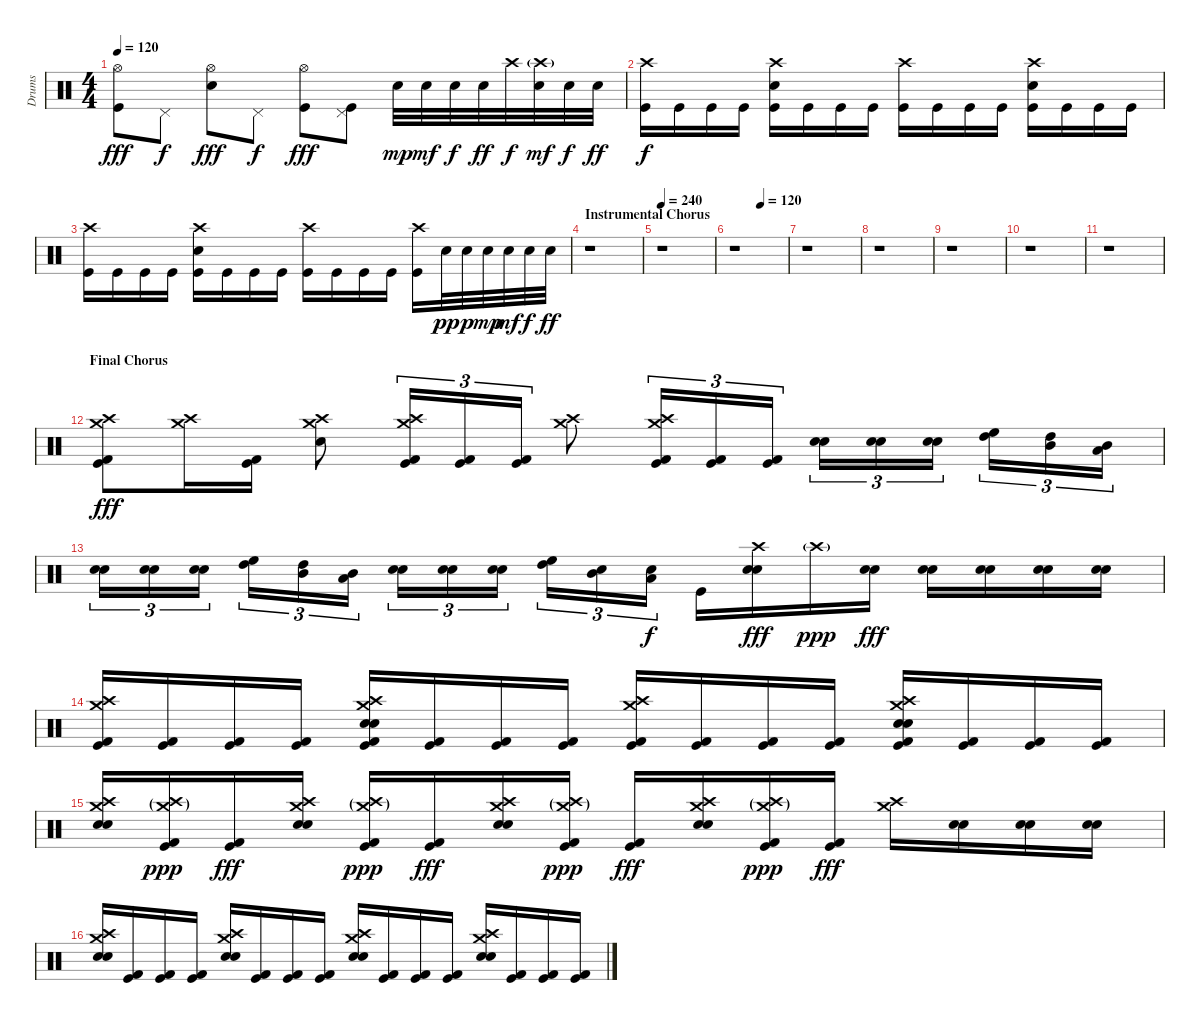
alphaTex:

\track ("Drums" "Drums") {instrument percussion}
\staff {score}
\articulation defaults
\ts (4 4)
\tempo 120
\clef neutral
\ks c
("Hi-Hat (open)" "Kick (hit)").8{dy fff} "Pedal Hi-Hat (hit)".8{dy f} ("Hi-Hat (open)" "Electric Snare (hit)").8{dy fff} "Pedal Hi-Hat (hit)".8{dy f} ("Hi-Hat (open)" "Kick (hit)").8{dy fff} ("Pedal Hi-Hat (hit)" "Kick (hit)").8 "Electric Snare (hit)".32{dy mp} "Electric Snare (hit)".32{dy mf} "Electric Snare (hit)".32{dy f} "Electric Snare (hit)".32{dy ff} "Crash high (hit)".32{dy f} ("Crash high (hit)"{g} "Electric Snare (hit)").32{dy mf} "Electric Snare (hit)".32{dy f} "Electric Snare (hit)".32{dy ff} |
("Crash high (hit)" "Kick (hit)").16{dy f} "Kick (hit)".16 "Kick (hit)".16 "Kick (hit)".16 ("Crash high (hit)" "Electric Snare (hit)" "Kick (hit)").16 "Kick (hit)".16 "Kick (hit)".16 "Kick (hit)".16 ("Crash high (hit)" "Kick (hit)").16 "Kick (hit)".16 "Kick (hit)".16 "Kick (hit)".16 ("Crash high (hit)" "Electric Snare (hit)" "Kick (hit)").16 "Kick (hit)".16 "Kick (hit)".16 "Kick (hit)".16 |
("Crash high (hit)" "Kick (hit)").16 "Kick (hit)".16 "Kick (hit)".16 "Kick (hit)".16 ("Crash high (hit)" "Electric Snare (hit)" "Kick (hit)").16 "Kick (hit)".16 "Kick (hit)".16 "Kick (hit)".16 ("Crash high (hit)" "Kick (hit)").16 "Kick (hit)".16 "Kick (hit)".16 "Kick (hit)".16 ("Crash high (hit)" "Kick (hit)").16 "Electric Snare (hit)".32{dy pp} "Electric Snare (hit)".32{dy p} "Electric Snare (hit)".32{dy mp} "Electric Snare (hit)".32{dy mf} "Electric Snare (hit)".32{dy f} "Electric Snare (hit)".32{dy ff} |
\section ("" "Instrumental Chorus")
r.1 |
\tempo 240
r.1 |
\tempo (120 0.5)
r.1 |
r.1 |
r.1 |
r.1 |
r.1 |
r.1 |
\section ("" "Final Chorus")
("Crash high (hit)" "Crash medium (hit)" "Kick (hit) 2" "Kick (hit)").8{dy fff volume 16 balance 8} ("Crash high (hit)" "Crash medium (hit)").16 ("Kick (hit) 2" "Kick (hit)").16 ("Crash high (hit)" "Crash medium (hit)" "Electric Snare (hit)").8 ("Crash high (hit)" "Crash medium (hit)" "Kick (hit) 2" "Kick (hit)").16{tu (3 2)} ("Kick (hit) 2" "Kick (hit)").16{tu (3 2)} ("Kick (hit) 2" "Kick (hit)").16{tu (3 2)} ("Crash high (hit)" "Crash medium (hit)").8 ("Crash high (hit)" "Crash medium (hit)" "Kick (hit) 2" "Kick (hit)").16{tu (3 2)} ("Kick (hit) 2" "Kick (hit)").16{tu (3 2)} ("Kick (hit) 2" "Kick (hit)").16{tu (3 2)} ("Electric Snare (hit)" "Snare (hit) 2").16{tu (3 2)} ("Electric Snare (hit)" "Snare (hit) 2").16{tu (3 2)} ("Electric Snare (hit)" "Snare (hit) 2").16{tu (3 2)} ("High Tom (hit)" "High Floor Tom (hit)").16{tu (3 2)} ("Mid Tom (hit)" "High Tom (hit)").16{tu (3 2)} ("Low Tom (hit)" "Mid Tom (hit)").16{tu (3 2)} |
("Electric Snare (hit)" "Snare (hit) 2").16{tu (3 2)} ("Electric Snare (hit)" "Snare (hit) 2").16{tu (3 2)} ("Electric Snare (hit)" "Snare (hit) 2").16{tu (3 2)} ("High Tom (hit)" "High Floor Tom (hit)").16{tu (3 2)} ("Mid Tom (hit)" "High Tom (hit)").16{tu (3 2)} ("Low Tom (hit)" "Mid Tom (hit)").16{tu (3 2)} ("Electric Snare (hit)" "Snare (hit) 2").16{tu (3 2)} ("Electric Snare (hit)" "Snare (hit) 2").16{tu (3 2)} ("Electric Snare (hit)" "Snare (hit) 2").16{tu (3 2)} ("High Tom (hit)" "High Floor Tom (hit)").16{tu (3 2)} ("Mid Tom (hit)" "Snare (hit) 2").16{tu (3 2)} ("Low Tom (hit)" "Snare (hit) 2").16{tu (3 2) dy f} "Kick (hit)".16 ("Crash high (hit)" "Electric Snare (hit)" "Snare (hit) 2").16{dy fff} "Crash high (hit)"{g}.16{dy ppp} ("Electric Snare (hit)" "Snare (hit) 2").16{dy fff} ("Electric Snare (hit)" "Snare (hit) 2").16 ("Electric Snare (hit)" "Snare (hit) 2").16 ("Electric Snare (hit)" "Snare (hit) 2").16 ("Electric Snare (hit)" "Snare (hit) 2").16 |
("Crash medium (hit)" "Crash high (hit)" "Kick (hit) 2" "Kick (hit)").16 ("Kick (hit) 2" "Kick (hit)").16 ("Kick (hit) 2" "Kick (hit)").16 ("Kick (hit) 2" "Kick (hit)").16 ("Crash medium (hit)" "Crash high (hit)" "Electric Snare (hit)" "Snare (hit) 2" "Kick (hit) 2" "Kick (hit)").16 ("Kick (hit) 2" "Kick (hit)").16 ("Kick (hit) 2" "Kick (hit)").16 ("Kick (hit) 2" "Kick (hit)").16 ("Crash medium (hit)" "Crash high (hit)" "Kick (hit) 2" "Kick (hit)").16 ("Kick (hit) 2" "Kick (hit)").16 ("Kick (hit) 2" "Kick (hit)").16 ("Kick (hit) 2" "Kick (hit)").16 ("Crash medium (hit)" "Crash high (hit)" "Electric Snare (hit)" "Snare (hit) 2" "Kick (hit) 2" "Kick (hit)").16 ("Kick (hit) 2" "Kick (hit)").16 ("Kick (hit) 2" "Kick (hit)").16 ("Kick (hit) 2" "Kick (hit)").16 |
("Crash high (hit)" "Crash medium (hit)" "Electric Snare (hit)" "Snare (hit) 2").16 ("Crash high (hit)"{g} "Crash medium (hit)"{g} "Kick (hit) 2" "Kick (hit)").16{dy ppp} ("Kick (hit) 2" "Kick (hit)").16{dy fff} ("Crash high (hit)" "Crash medium (hit)" "Electric Snare (hit)" "Snare (hit) 2").16 ("Crash high (hit)"{g} "Crash medium (hit)"{g} "Kick (hit) 2" "Kick (hit)").16{dy ppp} ("Kick (hit) 2" "Kick (hit)").16{dy fff} ("Crash high (hit)" "Crash medium (hit)" "Electric Snare (hit)" "Snare (hit) 2").16 ("Crash high (hit)"{g} "Crash medium (hit)"{g} "Kick (hit) 2" "Kick (hit)").16{dy ppp} ("Kick (hit) 2" "Kick (hit)").16{dy fff} ("Crash high (hit)" "Crash medium (hit)" "Electric Snare (hit)" "Snare (hit) 2").16 ("Crash high (hit)"{g} "Crash medium (hit)"{g} "Kick (hit) 2" "Kick (hit)").16{dy ppp} ("Kick (hit) 2" "Kick (hit)").16{dy fff} ("Crash medium (hit)" "Crash high (hit)").16 ("Electric Snare (hit)" "Snare (hit) 2").16 ("Electric Snare (hit)" "Snare (hit) 2").16 ("Electric Snare (hit)" "Snare (hit) 2").16 |
("Crash high (hit)" "Crash medium (hit)" "Electric Snare (hit)" "Snare (hit) 2").16 ("Kick (hit) 2" "Kick (hit)").16 ("Kick (hit) 2" "Kick (hit)").16 ("Kick (hit) 2" "Kick (hit)").16 ("Crash high (hit)" "Crash medium (hit)" "Electric Snare (hit)" "Snare (hit) 2").16 ("Kick (hit) 2" "Kick (hit)").16 ("Kick (hit) 2" "Kick (hit)").16 ("Kick (hit) 2" "Kick (hit)").16 ("Crash high (hit)" "Crash medium (hit)" "Electric Snare (hit)" "Snare (hit) 2").16 ("Kick (hit) 2" "Kick (hit)").16 ("Kick (hit) 2" "Kick (hit)").16 ("Kick (hit) 2" "Kick (hit)").16 ("Crash high (hit)" "Crash medium (hit)" "Electric Snare (hit)" "Snare (hit) 2").16 ("Kick (hit) 2" "Kick (hit)").16 ("Kick (hit) 2" "Kick (hit)").16 ("Kick (hit) 2" "Kick (hit)").16
